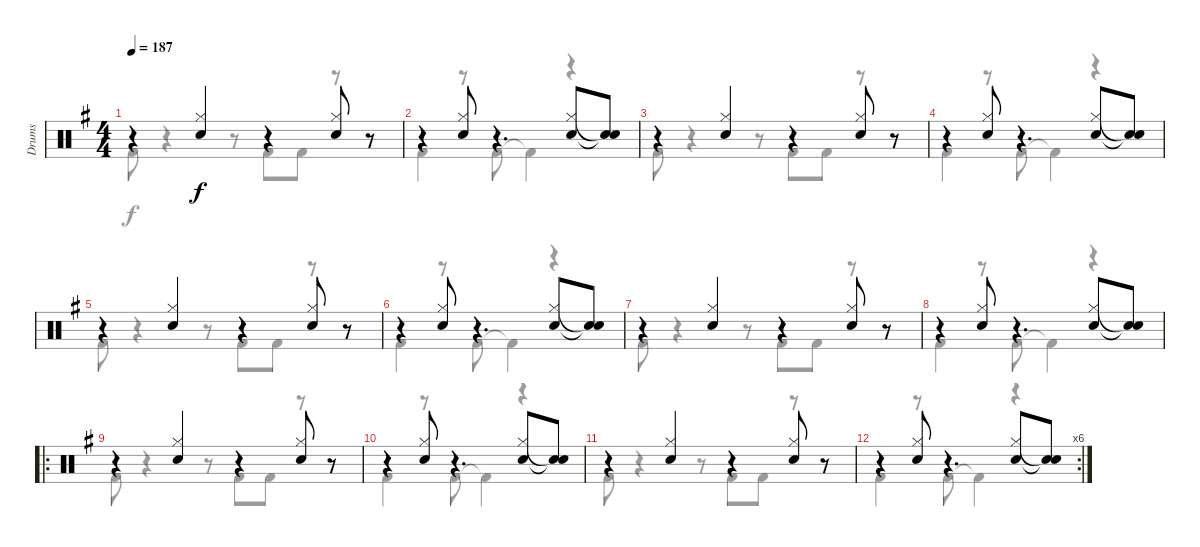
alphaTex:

\track ("Drums" "Drums") {instrument percussion}
\staff {score}
\articulation defaults
\voice
\ts (4 4)
\tempo 187
\clef neutral
\ks g
r.4{dy f} ("Hi-Hat (closed)" "Electric Snare (hit)").4 r.4 ("Hi-Hat (closed)" "Electric Snare (hit)").8 r.8 |
r.4 ("Hi-Hat (closed)" "Electric Snare (hit)").8 r.4{d} ("Hi-Hat (closed)" "Electric Snare (hit)").8 ("Snare (hit)"{t} "Snare (hit)"{t}).8 |
r.4 ("Hi-Hat (closed)" "Electric Snare (hit)").4 r.4 ("Hi-Hat (closed)" "Electric Snare (hit)").8 r.8 |
r.4 ("Hi-Hat (closed)" "Electric Snare (hit)").8 r.4{d} ("Hi-Hat (closed)" "Electric Snare (hit)").8 ("Snare (hit)"{t} "Snare (hit)"{t}).8 |
r.4 ("Hi-Hat (closed)" "Electric Snare (hit)").4 r.4 ("Hi-Hat (closed)" "Electric Snare (hit)").8 r.8 |
r.4 ("Hi-Hat (closed)" "Electric Snare (hit)").8 r.4{d} ("Hi-Hat (closed)" "Electric Snare (hit)").8 ("Snare (hit)"{t} "Snare (hit)"{t}).8 |
r.4 ("Hi-Hat (closed)" "Electric Snare (hit)").4 r.4 ("Hi-Hat (closed)" "Electric Snare (hit)").8 r.8 |
r.4 ("Hi-Hat (closed)" "Electric Snare (hit)").8 r.4{d} ("Hi-Hat (closed)" "Electric Snare (hit)").8 ("Snare (hit)"{t} "Snare (hit)"{t}).8 |
\ro
r.4 ("Hi-Hat (closed)" "Electric Snare (hit)").4 r.4 ("Hi-Hat (closed)" "Electric Snare (hit)").8 r.8 |
r.4 ("Hi-Hat (closed)" "Electric Snare (hit)").8 r.4{d} ("Hi-Hat (closed)" "Electric Snare (hit)").8 ("Snare (hit)"{t} "Snare (hit)"{t}).8 |
r.4 ("Hi-Hat (closed)" "Electric Snare (hit)").4 r.4 ("Hi-Hat (closed)" "Electric Snare (hit)").8 r.8 |
\rc 6
r.4 ("Hi-Hat (closed)" "Electric Snare (hit)").8 r.4{d} ("Hi-Hat (closed)" "Electric Snare (hit)").8 ("Snare (hit)"{t} "Snare (hit)"{t}).8
\voice
\clef neutral
\ottava regular
\simile none
\ks g "Kick (hit) 2".8{dy f}
r.4 r.8 "Kick (hit) 2".8 "Kick (hit) 2".8 r.8 r.8 |
"Kick (hit) 2".4 r.8 "Kick (hit) 2".8 "Kick (hit) 2"{t}.4 r.4 |
"Kick (hit) 2".8 r.4 r.8 "Kick (hit) 2".8 "Kick (hit) 2".8 r.8 r.8 |
"Kick (hit) 2".4 r.8 "Kick (hit) 2".8 "Kick (hit) 2"{t}.4 r.4 |
"Kick (hit) 2".8 r.4 r.8 "Kick (hit) 2".8 "Kick (hit) 2".8 r.8 r.8 |
"Kick (hit) 2".4 r.8 "Kick (hit) 2".8 "Kick (hit) 2"{t}.4 r.4 |
"Kick (hit) 2".8 r.4 r.8 "Kick (hit) 2".8 "Kick (hit) 2".8 r.8 r.8 |
"Kick (hit) 2".4 r.8 "Kick (hit) 2".8 "Kick (hit) 2"{t}.4 r.4 |
"Kick (hit) 2".8 r.4 r.8 "Kick (hit) 2".8 "Kick (hit) 2".8 r.8 r.8 |
"Kick (hit) 2".4 r.8 "Kick (hit) 2".8 "Kick (hit) 2"{t}.4 r.4 |
"Kick (hit) 2".8 r.4 r.8 "Kick (hit) 2".8 "Kick (hit) 2".8 r.8 r.8 |
"Kick (hit) 2".4 r.8 "Kick (hit) 2".8 "Kick (hit) 2"{t}.4 r.4
